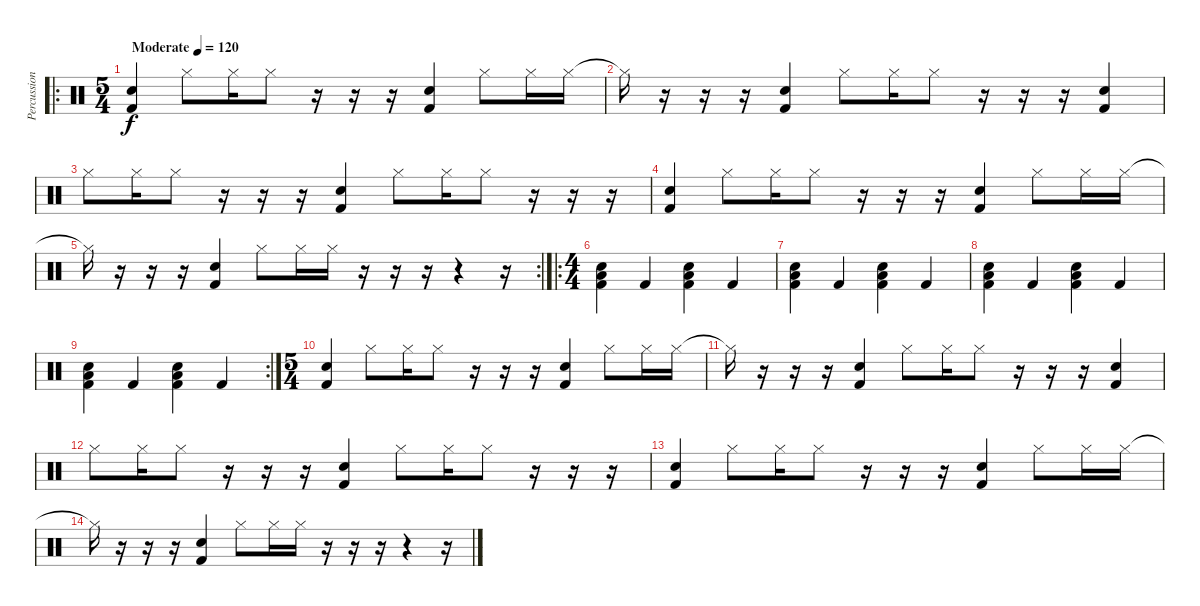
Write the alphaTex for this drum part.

\track ("Percussion" "Percussion") {instrument percussion}
\staff {score}
\articulation defaults
\ro
\ts (5 4)
\tempo (120 "Moderate")
\clef neutral
\ks c
("Electric Snare (hit)" "Kick (hit) 2").4{dy f} "Hi-Hat (closed)".8 "Hi-Hat (closed)".16 "Hi-Hat (closed)".8 r.16 r.16 r.16 ("Electric Snare (hit)" "Kick (hit) 2").4 "Hi-Hat (closed)".8 "Hi-Hat (closed)".16 "Hi-Hat (closed)".16 |
"Hi-Hat (closed)"{t}.16 r.16 r.16 r.16 ("Electric Snare (hit)" "Kick (hit) 2").4 "Hi-Hat (closed)".8 "Hi-Hat (closed)".16 "Hi-Hat (closed)".8 r.16 r.16 r.16 ("Electric Snare (hit)" "Kick (hit) 2").4 |
"Hi-Hat (closed)".8 "Hi-Hat (closed)".16 "Hi-Hat (closed)".8 r.16 r.16 r.16 ("Electric Snare (hit)" "Kick (hit) 2").4 "Hi-Hat (closed)".8 "Hi-Hat (closed)".16 "Hi-Hat (closed)".8 r.16 r.16 r.16 |
("Electric Snare (hit)" "Kick (hit) 2").4 "Hi-Hat (closed)".8 "Hi-Hat (closed)".16 "Hi-Hat (closed)".8 r.16 r.16 r.16 ("Electric Snare (hit)" "Kick (hit) 2").4 "Hi-Hat (closed)".8 "Hi-Hat (closed)".16 "Hi-Hat (closed)".16 |
\rc 2 "Hi-Hat (closed)"{t}.16
r.16 r.16 r.16 ("Electric Snare (hit)" "Kick (hit) 2").4 "Hi-Hat (closed)".8 "Hi-Hat (closed)".16 "Hi-Hat (closed)".16 r.16 r.16 r.16 r.4 r.16 |
\ro
\ts (4 4)
("Kick (hit) 2" "Electric Snare (hit)" "Low Floor Tom (hit)").4 "Kick (hit) 2".4 ("Kick (hit) 2" "Electric Snare (hit)" "Low Floor Tom (hit)").4 "Kick (hit) 2".4 |
("Kick (hit) 2" "Electric Snare (hit)" "Low Floor Tom (hit)").4 "Kick (hit) 2".4 ("Kick (hit) 2" "Electric Snare (hit)" "Low Floor Tom (hit)").4 "Kick (hit) 2".4 |
("Kick (hit) 2" "Electric Snare (hit)" "Low Floor Tom (hit)").4 "Kick (hit) 2".4 ("Kick (hit) 2" "Electric Snare (hit)" "Low Floor Tom (hit)").4 "Kick (hit) 2".4 |
\rc 2
("Kick (hit) 2" "Electric Snare (hit)" "Low Floor Tom (hit)").4 "Kick (hit) 2".4 ("Kick (hit) 2" "Electric Snare (hit)" "Low Floor Tom (hit)").4 "Kick (hit) 2".4 |
\ts (5 4)
("Electric Snare (hit)" "Kick (hit) 2").4 "Hi-Hat (closed)".8 "Hi-Hat (closed)".16 "Hi-Hat (closed)".8 r.16 r.16 r.16 ("Electric Snare (hit)" "Kick (hit) 2").4 "Hi-Hat (closed)".8 "Hi-Hat (closed)".16 "Hi-Hat (closed)".16 |
"Hi-Hat (closed)"{t}.16 r.16 r.16 r.16 ("Electric Snare (hit)" "Kick (hit) 2").4 "Hi-Hat (closed)".8 "Hi-Hat (closed)".16 "Hi-Hat (closed)".8 r.16 r.16 r.16 ("Electric Snare (hit)" "Kick (hit) 2").4 |
"Hi-Hat (closed)".8 "Hi-Hat (closed)".16 "Hi-Hat (closed)".8 r.16 r.16 r.16 ("Electric Snare (hit)" "Kick (hit) 2").4 "Hi-Hat (closed)".8 "Hi-Hat (closed)".16 "Hi-Hat (closed)".8 r.16 r.16 r.16 |
("Electric Snare (hit)" "Kick (hit) 2").4 "Hi-Hat (closed)".8 "Hi-Hat (closed)".16 "Hi-Hat (closed)".8 r.16 r.16 r.16 ("Electric Snare (hit)" "Kick (hit) 2").4 "Hi-Hat (closed)".8 "Hi-Hat (closed)".16 "Hi-Hat (closed)".16 |
"Hi-Hat (closed)"{t}.16 r.16 r.16 r.16 ("Electric Snare (hit)" "Kick (hit) 2").4 "Hi-Hat (closed)".8 "Hi-Hat (closed)".16 "Hi-Hat (closed)".16 r.16 r.16 r.16 r.4 r.16
